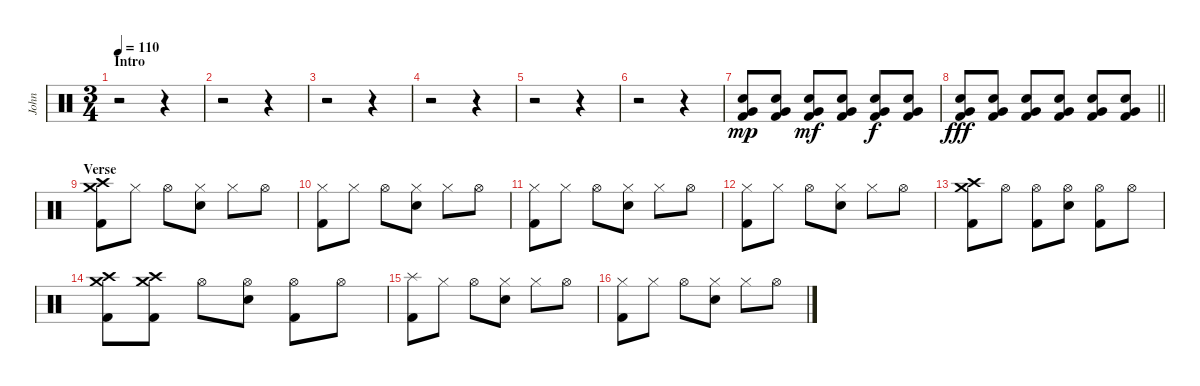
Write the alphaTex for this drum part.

\track ("John" "John") {instrument percussion}
\staff {score}
\articulation defaults
\ts (3 4)
\section ("" "Intro")
\tempo 110
\clef neutral
\ks c
r.2{dy mp} r.4 |
r.2 r.4 |
r.2 r.4 |
r.2 r.4 |
r.2 r.4 |
r.2 r.4 |
("Very Low Tom (hit)" "Electric Snare (hit)" "Kick (hit) 2").8 ("Very Low Tom (hit)" "Electric Snare (hit)" "Kick (hit) 2").8 ("Very Low Tom (hit)" "Electric Snare (hit)" "Kick (hit) 2").8{dy mf} ("Very Low Tom (hit)" "Electric Snare (hit)" "Kick (hit) 2").8 ("Very Low Tom (hit)" "Electric Snare (hit)" "Kick (hit) 2").8{dy f} ("Very Low Tom (hit)" "Electric Snare (hit)" "Kick (hit) 2").8 |
\barLineRight lightlight
("Very Low Tom (hit)" "Electric Snare (hit)" "Kick (hit) 2").8{dy fff} ("Very Low Tom (hit)" "Electric Snare (hit)" "Kick (hit) 2").8 ("Very Low Tom (hit)" "Electric Snare (hit)" "Kick (hit) 2").8 ("Very Low Tom (hit)" "Electric Snare (hit)" "Kick (hit) 2").8 ("Very Low Tom (hit)" "Electric Snare (hit)" "Kick (hit) 2").8 ("Very Low Tom (hit)" "Electric Snare (hit)" "Kick (hit) 2").8 |
\section ("" "Verse")
("Crash medium (hit)" "Crash high (hit)" "Kick (hit) 2").8 "Hi-Hat (closed)".8 "Hi-Hat (open)".8 ("Hi-Hat (closed)" "Electric Snare (hit)").8 "Hi-Hat (closed)".8 "Hi-Hat (open)".8 |
("Hi-Hat (closed)" "Kick (hit) 2").8 "Hi-Hat (closed)".8 "Hi-Hat (open)".8 ("Hi-Hat (closed)" "Electric Snare (hit)").8 "Hi-Hat (closed)".8 "Hi-Hat (open)".8 |
("Hi-Hat (closed)" "Kick (hit) 2").8 "Hi-Hat (closed)".8 "Hi-Hat (open)".8 ("Hi-Hat (closed)" "Electric Snare (hit)").8 "Hi-Hat (closed)".8 "Hi-Hat (open)".8 |
("Hi-Hat (closed)" "Kick (hit) 2").8 "Hi-Hat (closed)".8 "Hi-Hat (open)".8 ("Hi-Hat (closed)" "Electric Snare (hit)").8 "Hi-Hat (closed)".8 "Hi-Hat (open)".8 |
("Crash medium (hit)" "Crash high (hit)" "Kick (hit) 2").8 "Hi-Hat (open)".8 ("Hi-Hat (open)" "Kick (hit) 2").8 ("Hi-Hat (open)" "Electric Snare (hit)").8 ("Hi-Hat (open)" "Kick (hit) 2").8 "Hi-Hat (open)".8 |
("Crash medium (hit)" "Crash high (hit)" "Kick (hit) 2").8 ("Crash medium (hit)" "Crash high (hit)" "Kick (hit) 2").8 "Hi-Hat (open)".8 ("Hi-Hat (open)" "Electric Snare (hit)").8 ("Hi-Hat (open)" "Kick (hit) 2").8 "Hi-Hat (open)".8 |
("Splash (hit)" "Kick (hit) 2").8 "Hi-Hat (closed)".8 "Hi-Hat (open)".8 ("Hi-Hat (closed)" "Electric Snare (hit)").8 "Hi-Hat (closed)".8 "Hi-Hat (open)".8 |
("Hi-Hat (closed)" "Kick (hit) 2").8 "Hi-Hat (closed)".8 "Hi-Hat (open)".8 ("Hi-Hat (closed)" "Electric Snare (hit)").8 "Hi-Hat (closed)".8 "Hi-Hat (open)".8
